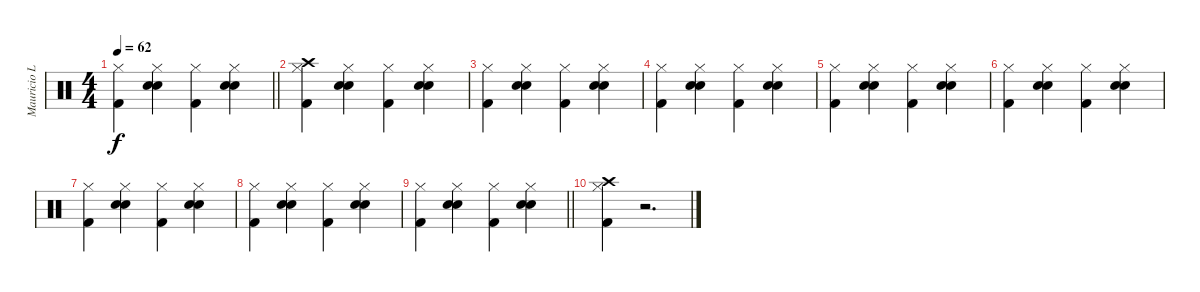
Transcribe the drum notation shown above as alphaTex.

\track ("Mauricio Loza" "Mauricio L") {instrument percussion}
\staff {score}
\articulation defaults
\ts (4 4)
\tempo 62
\clef neutral
\barLineRight lightlight
\ks c
("Hi-Hat (closed)" "Kick (hit) 2").4{dy f} ("Hi-Hat (closed)" "Electric Snare (hit)" "Hand Clap (hit)").4 ("Hi-Hat (closed)" "Kick (hit) 2").4 ("Hi-Hat (closed)" "Electric Snare (hit)" "Hand Clap (hit)").4 |
("Hi-Hat (closed)" "Crash high (hit)" "Kick (hit) 2").4{volume 13} ("Hi-Hat (closed)" "Electric Snare (hit)" "Hand Clap (hit)").4 ("Hi-Hat (closed)" "Kick (hit) 2").4 ("Hi-Hat (closed)" "Electric Snare (hit)" "Hand Clap (hit)").4 |
("Hi-Hat (closed)" "Kick (hit) 2").4 ("Hi-Hat (closed)" "Electric Snare (hit)" "Hand Clap (hit)").4 ("Hi-Hat (closed)" "Kick (hit) 2").4 ("Hi-Hat (closed)" "Electric Snare (hit)" "Hand Clap (hit)").4 |
("Hi-Hat (closed)" "Kick (hit) 2").4 ("Hi-Hat (closed)" "Electric Snare (hit)" "Hand Clap (hit)").4 ("Hi-Hat (closed)" "Kick (hit) 2").4 ("Hi-Hat (closed)" "Electric Snare (hit)" "Hand Clap (hit)").4 |
("Hi-Hat (closed)" "Kick (hit) 2").4 ("Hi-Hat (closed)" "Electric Snare (hit)" "Hand Clap (hit)").4 ("Hi-Hat (closed)" "Kick (hit) 2").4 ("Hi-Hat (closed)" "Electric Snare (hit)" "Hand Clap (hit)").4 |
("Hi-Hat (closed)" "Kick (hit) 2").4 ("Hi-Hat (closed)" "Electric Snare (hit)" "Hand Clap (hit)").4 ("Hi-Hat (closed)" "Kick (hit) 2").4 ("Hi-Hat (closed)" "Electric Snare (hit)" "Hand Clap (hit)").4 |
("Hi-Hat (closed)" "Kick (hit) 2").4 ("Hi-Hat (closed)" "Electric Snare (hit)" "Hand Clap (hit)").4 ("Hi-Hat (closed)" "Kick (hit) 2").4 ("Hi-Hat (closed)" "Electric Snare (hit)" "Hand Clap (hit)").4 |
("Hi-Hat (closed)" "Kick (hit) 2").4 ("Hi-Hat (closed)" "Electric Snare (hit)" "Hand Clap (hit)").4 ("Hi-Hat (closed)" "Kick (hit) 2").4 ("Hi-Hat (closed)" "Electric Snare (hit)" "Hand Clap (hit)").4 |
\barLineRight lightlight
("Hi-Hat (closed)" "Kick (hit) 2").4 ("Hi-Hat (closed)" "Electric Snare (hit)" "Hand Clap (hit)").4 ("Hi-Hat (closed)" "Kick (hit) 2").4 ("Hi-Hat (closed)" "Electric Snare (hit)" "Hand Clap (hit)").4 |
("Hi-Hat (closed)" "Crash high (hit)" "Kick (hit) 2").4{volume 13} r.2{d}
